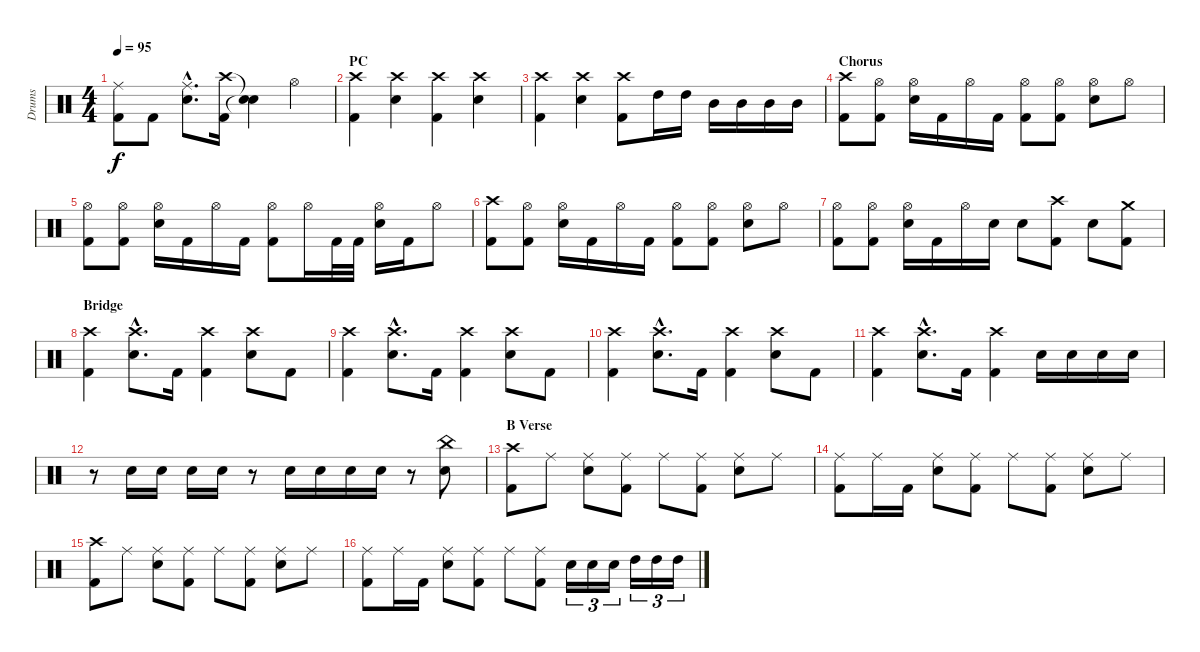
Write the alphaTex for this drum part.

\track ("Drums" "Drums") {instrument percussion}
\staff {score}
\articulation defaults
\ts (4 4)
\tempo 95
\clef neutral
\ks c
("Ride (middle)" "Kick (hit) 2").8{dy f} "Kick (hit) 2".8 ("Ride (middle)"{hac} "Electric Snare (hit)"{hac}).8{d} ("Crash high (hit)" "Kick (hit) 2").16 ("Snare (hit)"{t} "Snare (hit)"{t}).4 "Hi-Hat (open)".4 |
\section ("" "PC")
("Crash high (hit)" "Kick (hit) 2").4 ("Crash high (hit)" "Electric Snare (hit)").4 ("Crash high (hit)" "Kick (hit) 2").4 ("Crash high (hit)" "Electric Snare (hit)").4 |
("Crash high (hit)" "Kick (hit) 2").4 ("Crash high (hit)" "Electric Snare (hit)").4 ("Crash high (hit)" "Kick (hit) 2").8 "High Tom (hit)".16 "High Tom (hit)".16 "Mid Tom (hit)".16 "Mid Tom (hit)".16 "Mid Tom (hit)".16 "Mid Tom (hit)".16 |
\section ("" "Chorus")
("Crash high (hit)" "Kick (hit) 2").8 ("Hi-Hat (open)" "Kick (hit) 2").8 ("Hi-Hat (open)" "Electric Snare (hit)").16 "Kick (hit) 2".16 "Hi-Hat (open)".16 "Kick (hit) 2".16 ("Hi-Hat (open)" "Kick (hit) 2").8 ("Hi-Hat (open)" "Kick (hit) 2").8 ("Hi-Hat (open)" "Electric Snare (hit)").8 "Hi-Hat (open)".8 |
("Hi-Hat (open)" "Kick (hit) 2").8 ("Hi-Hat (open)" "Kick (hit) 2").8 ("Hi-Hat (open)" "Electric Snare (hit)").16 "Kick (hit) 2".16 "Hi-Hat (open)".16 "Kick (hit) 2".16 ("Hi-Hat (open)" "Kick (hit) 2").8 "Hi-Hat (open)".16 "Kick (hit) 2".32 "Kick (hit) 2".32 ("Hi-Hat (open)" "Electric Snare (hit)").16 "Kick (hit) 2".16 "Hi-Hat (open)".8 |
("Crash high (hit)" "Kick (hit) 2").8 ("Hi-Hat (open)" "Kick (hit) 2").8 ("Hi-Hat (open)" "Electric Snare (hit)").16 "Kick (hit) 2".16 "Hi-Hat (open)".16 "Kick (hit) 2".16 ("Hi-Hat (open)" "Kick (hit) 2").8 ("Hi-Hat (open)" "Kick (hit) 2").8 ("Hi-Hat (open)" "Electric Snare (hit)").8 "Hi-Hat (open)".8 |
("Hi-Hat (open)" "Kick (hit) 2").8 ("Hi-Hat (open)" "Kick (hit) 2").8 ("Hi-Hat (open)" "Electric Snare (hit)").16 "Kick (hit) 2".16 "Hi-Hat (open)".16 "Electric Snare (hit)".16 "Electric Snare (hit)".8 ("Crash high (hit)" "Kick (hit) 2").8 "Electric Snare (hit)".8 ("Crash medium (hit)" "Kick (hit) 2").8 |
\section ("" "Bridge")
("Crash high (hit)" "Kick (hit) 2").4 ("Crash high (hit)"{hac} "Electric Snare (hit)"{hac}).8{d} "Kick (hit) 2".16 ("Crash high (hit)" "Kick (hit) 2").4 ("Crash high (hit)" "Electric Snare (hit)").8 "Kick (hit) 2".8 |
("Crash high (hit)" "Kick (hit) 2").4 ("Crash high (hit)"{hac} "Electric Snare (hit)"{hac}).8{d} "Kick (hit) 2".16 ("Crash high (hit)" "Kick (hit) 2").4 ("Crash high (hit)" "Electric Snare (hit)").8 "Kick (hit) 2".8 |
("Crash high (hit)" "Kick (hit) 2").4 ("Crash high (hit)"{hac} "Electric Snare (hit)"{hac}).8{d} "Kick (hit) 2".16 ("Crash high (hit)" "Kick (hit) 2").4 ("Crash high (hit)" "Electric Snare (hit)").8 "Kick (hit) 2".8 |
("Crash high (hit)" "Kick (hit) 2").4 ("Crash high (hit)"{hac} "Electric Snare (hit)"{hac}).8{d} "Kick (hit) 2".16 ("Crash high (hit)" "Kick (hit) 2").4 "Electric Snare (hit)".16 "Electric Snare (hit)".16 "Electric Snare (hit)".16 "Electric Snare (hit)".16 |
r.8 "Electric Snare (hit)".16 "Electric Snare (hit)".16 "Electric Snare (hit)".16 "Electric Snare (hit)".16 r.8 "Electric Snare (hit)".16 "Electric Snare (hit)".16 "Electric Snare (hit)".16 "Electric Snare (hit)".16 r.8 ("China (hit)" "Electric Snare (hit)").8 |
\section ("" "B Verse")
("Crash high (hit)" "Kick (hit) 2").8 "Ride (middle)".8 ("Ride (middle)" "Electric Snare (hit)").8 ("Ride (middle)" "Kick (hit) 2").8 "Ride (middle)".8 ("Ride (middle)" "Kick (hit) 2").8 ("Ride (middle)" "Electric Snare (hit)").8 "Ride (middle)".8 |
("Ride (middle)" "Kick (hit) 2").8 "Ride (middle)".16 "Kick (hit) 2".16 ("Ride (middle)" "Electric Snare (hit)").8 ("Ride (middle)" "Kick (hit) 2").8 "Ride (middle)".8 ("Ride (middle)" "Kick (hit) 2").8 ("Ride (middle)" "Electric Snare (hit)").8 "Ride (middle)".8 |
("Crash high (hit)" "Kick (hit) 2").8 "Ride (middle)".8 ("Ride (middle)" "Electric Snare (hit)").8 ("Ride (middle)" "Kick (hit) 2").8 "Ride (middle)".8 ("Ride (middle)" "Kick (hit) 2").8 ("Ride (middle)" "Electric Snare (hit)").8 "Ride (middle)".8 |
("Ride (middle)" "Kick (hit) 2").8 "Ride (middle)".16 "Kick (hit) 2".16 ("Ride (middle)" "Electric Snare (hit)").8 ("Ride (middle)" "Kick (hit) 2").8 "Ride (middle)".8 ("Ride (middle)" "Kick (hit) 2").8 "Electric Snare (hit)".16{tu (3 2)} "Electric Snare (hit)".16{tu (3 2)} "Electric Snare (hit)".16{tu (3 2)} "High Tom (hit)".16{tu (3 2)} "High Tom (hit)".16{tu (3 2)} "High Tom (hit)".16{tu (3 2)}
